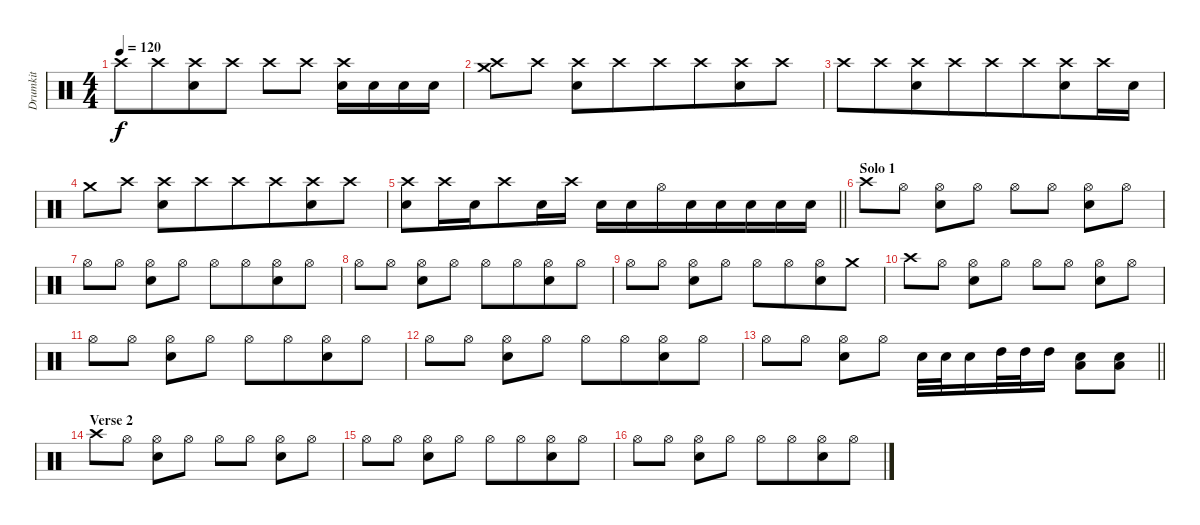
\track ("Drumkit" "Drumkit") {instrument percussion bank 2}
\staff {score}
\articulation defaults
\ts (4 4)
\tempo 120
\clef neutral
\ks c "Crash high (hit)".8{dy f} "Crash high (hit)".8{beam merge}
("Crash high (hit)" "Electric Snare (hit)").8{beam merge} "Crash high (hit)".8 "Crash high (hit)".8{beam merge} "Crash high (hit)".8 ("Crash high (hit)" "Electric Snare (hit)").16{beam merge} "Electric Snare (hit)".16{beam merge} "Electric Snare (hit)".16{beam merge} "Electric Snare (hit)".16 |
("Crash medium (hit)" "Crash high (hit)").8{beam merge} "Crash high (hit)".8 ("Crash high (hit)" "Electric Snare (hit)").8{beam merge} "Crash high (hit)".8{beam merge} "Crash high (hit)".8 "Crash high (hit)".8{beam merge} ("Crash high (hit)" "Electric Snare (hit)").8{beam merge} "Crash high (hit)".8 |
"Crash high (hit)".8 "Crash high (hit)".8{beam merge} ("Crash high (hit)" "Electric Snare (hit)").8 "Crash high (hit)".8{beam merge} "Crash high (hit)".8{beam merge} "Crash high (hit)".8{beam merge} ("Crash high (hit)" "Electric Snare (hit)").8 "Crash high (hit)".16{beam merge} "Electric Snare (hit)".16 |
"Crash medium (hit)".8 "Crash high (hit)".8 ("Crash high (hit)" "Electric Snare (hit)").8 "Crash high (hit)".8{beam merge} "Crash high (hit)".8 "Crash high (hit)".8{beam merge} ("Crash high (hit)" "Electric Snare (hit)").8 "Crash high (hit)".8 |
\barLineRight lightlight
("Crash high (hit)" "Electric Snare (hit)").8 "Crash high (hit)".16 "Electric Snare (hit)".16{beam merge} "Crash high (hit)".8{beam merge} "Electric Snare (hit)".16{beam merge} "Crash high (hit)".16 "Electric Snare (hit)".16{beam merge} "Electric Snare (hit)".16 "Hi-Hat (open)".16{beam merge} "Electric Snare (hit)".16{beam merge} "Electric Snare (hit)".16{beam merge} "Electric Snare (hit)".16{beam merge} "Electric Snare (hit)".16{beam merge} "Electric Snare (hit)".16 |
\section ("" "Solo 1")
"Crash high (hit)".8{beam merge} "Hi-Hat (open)".8 ("Hi-Hat (open)" "Electric Snare (hit)").8 "Hi-Hat (open)".8 "Hi-Hat (open)".8{beam merge} "Hi-Hat (open)".8 ("Hi-Hat (open)" "Electric Snare (hit)").8{beam merge} "Hi-Hat (open)".8 |
"Hi-Hat (open)".8 "Hi-Hat (open)".8 ("Hi-Hat (open)" "Electric Snare (hit)").8 "Hi-Hat (open)".8 "Hi-Hat (open)".8 "Hi-Hat (open)".8{beam merge} ("Hi-Hat (open)" "Electric Snare (hit)").8{beam merge} "Hi-Hat (open)".8 |
"Hi-Hat (open)".8 "Hi-Hat (open)".8 ("Hi-Hat (open)" "Electric Snare (hit)").8 "Hi-Hat (open)".8 "Hi-Hat (open)".8 "Hi-Hat (open)".8{beam merge} ("Hi-Hat (open)" "Electric Snare (hit)").8{beam merge} "Hi-Hat (open)".8 |
"Hi-Hat (open)".8 "Hi-Hat (open)".8 ("Hi-Hat (open)" "Electric Snare (hit)").8 "Hi-Hat (open)".8 "Hi-Hat (open)".8 "Hi-Hat (open)".8{beam merge} ("Hi-Hat (open)" "Electric Snare (hit)").8{beam merge} "Crash medium (hit)".8 |
"Crash high (hit)".8{beam merge} "Hi-Hat (open)".8 ("Hi-Hat (open)" "Electric Snare (hit)").8 "Hi-Hat (open)".8 "Hi-Hat (open)".8{beam merge} "Hi-Hat (open)".8 ("Hi-Hat (open)" "Electric Snare (hit)").8{beam merge} "Hi-Hat (open)".8 |
"Hi-Hat (open)".8 "Hi-Hat (open)".8 ("Hi-Hat (open)" "Electric Snare (hit)").8 "Hi-Hat (open)".8 "Hi-Hat (open)".8 "Hi-Hat (open)".8{beam merge} ("Hi-Hat (open)" "Electric Snare (hit)").8{beam merge} "Hi-Hat (open)".8 |
"Hi-Hat (open)".8 "Hi-Hat (open)".8 ("Hi-Hat (open)" "Electric Snare (hit)").8 "Hi-Hat (open)".8 "Hi-Hat (open)".8 "Hi-Hat (open)".8{beam merge} ("Hi-Hat (open)" "Electric Snare (hit)").8{beam merge} "Hi-Hat (open)".8 |
\barLineRight lightlight "Hi-Hat (open)".8 "Hi-Hat (open)".8
("Hi-Hat (open)" "Electric Snare (hit)").8 "Hi-Hat (open)".8 "Electric Snare (hit)".32{beam merge} "Electric Snare (hit)".32 "Electric Snare (hit)".16{beam merge} "High Tom (hit)".32{beam merge} "High Tom (hit)".32{beam merge} "High Tom (hit)".16 ("Low Floor Tom (hit)" "Electric Snare (hit)").8{beam merge} ("Low Floor Tom (hit)" "Electric Snare (hit)").8 |
\section ("" "Verse 2")
"Crash high (hit)".8{beam merge} "Hi-Hat (open)".8 ("Hi-Hat (open)" "Electric Snare (hit)").8 "Hi-Hat (open)".8 "Hi-Hat (open)".8{beam merge} "Hi-Hat (open)".8 ("Hi-Hat (open)" "Electric Snare (hit)").8{beam merge} "Hi-Hat (open)".8 |
"Hi-Hat (open)".8 "Hi-Hat (open)".8 ("Hi-Hat (open)" "Electric Snare (hit)").8 "Hi-Hat (open)".8 "Hi-Hat (open)".8 "Hi-Hat (open)".8{beam merge} ("Hi-Hat (open)" "Electric Snare (hit)").8{beam merge} "Hi-Hat (open)".8 |
"Hi-Hat (open)".8 "Hi-Hat (open)".8 ("Hi-Hat (open)" "Electric Snare (hit)").8 "Hi-Hat (open)".8 "Hi-Hat (open)".8 "Hi-Hat (open)".8{beam merge} ("Hi-Hat (open)" "Electric Snare (hit)").8{beam merge} "Hi-Hat (open)".8
